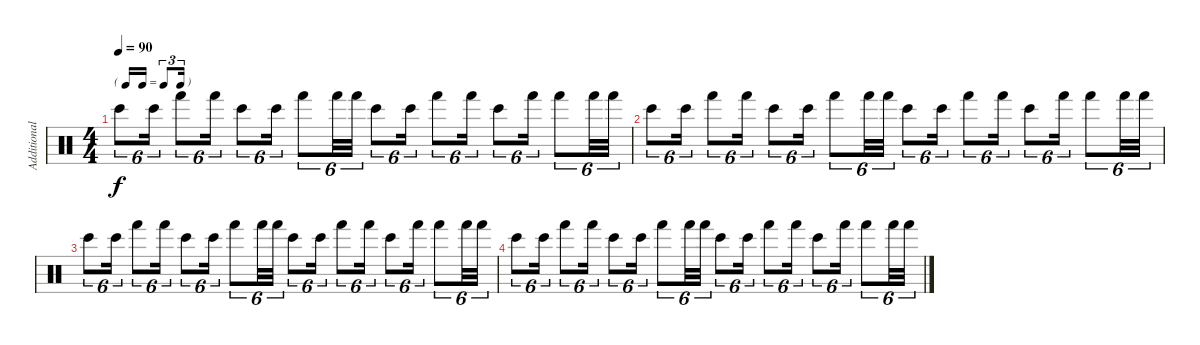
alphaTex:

\track ("Additional Percussion" "Additional") {instrument percussion}
\staff {score}
\articulation defaults
\ts (4 4)
\tf triplet16th
\tempo 90
\clef neutral
\ks c "Bongo High (hit)".8{tu (6 4) dy f} "Bongo High (hit)".16{tu (6 4)} "Hand (hit)".8{tu (6 4)} "Hand (hit)".16{tu (6 4)} "Bongo High (hit)".8{tu (6 4)} "Bongo High (hit)".16{tu (6 4)} "Hand (hit)".8{tu (6 4)} "Hand (hit)".32{tu (6 4)} "Hand (hit)".32{tu (6 4)} "Bongo High (hit)".8{tu (6 4)} "Bongo High (hit)".16{tu (6 4)} "Hand (hit)".8{tu (6 4)} "Hand (hit)".16{tu (6 4)} "Bongo High (hit)".8{tu (6 4)} "Hand (hit)".16{tu (6 4)} "Hand (hit)".8{tu (6 4)} "Hand (hit)".32{tu (6 4)} "Hand (hit)".32{tu (6 4)}
|
"Bongo High (hit)".8{tu (6 4)} "Bongo High (hit)".16{tu (6 4)} "Hand (hit)".8{tu (6 4)} "Hand (hit)".16{tu (6 4)} "Bongo High (hit)".8{tu (6 4)} "Bongo High (hit)".16{tu (6 4)} "Hand (hit)".8{tu (6 4)} "Hand (hit)".32{tu (6 4)} "Hand (hit)".32{tu (6 4)} "Bongo High (hit)".8{tu (6 4)} "Bongo High (hit)".16{tu (6 4)} "Hand (hit)".8{tu (6 4)} "Hand (hit)".16{tu (6 4)} "Bongo High (hit)".8{tu (6 4)} "Hand (hit)".16{tu (6 4)} "Hand (hit)".8{tu (6 4)} "Hand (hit)".32{tu (6 4)} "Hand (hit)".32{tu (6 4)} |
"Bongo High (hit)".8{tu (6 4)} "Bongo High (hit)".16{tu (6 4)} "Hand (hit)".8{tu (6 4)} "Hand (hit)".16{tu (6 4)} "Bongo High (hit)".8{tu (6 4)} "Bongo High (hit)".16{tu (6 4)} "Hand (hit)".8{tu (6 4)} "Hand (hit)".32{tu (6 4)} "Hand (hit)".32{tu (6 4)} "Bongo High (hit)".8{tu (6 4)} "Bongo High (hit)".16{tu (6 4)} "Hand (hit)".8{tu (6 4)} "Hand (hit)".16{tu (6 4)} "Bongo High (hit)".8{tu (6 4)} "Hand (hit)".16{tu (6 4)} "Hand (hit)".8{tu (6 4)} "Hand (hit)".32{tu (6 4)} "Hand (hit)".32{tu (6 4)} |
"Bongo High (hit)".8{tu (6 4)} "Bongo High (hit)".16{tu (6 4)} "Hand (hit)".8{tu (6 4)} "Hand (hit)".16{tu (6 4)} "Bongo High (hit)".8{tu (6 4)} "Bongo High (hit)".16{tu (6 4)} "Hand (hit)".8{tu (6 4)} "Hand (hit)".32{tu (6 4)} "Hand (hit)".32{tu (6 4)} "Bongo High (hit)".8{tu (6 4)} "Bongo High (hit)".16{tu (6 4)} "Hand (hit)".8{tu (6 4)} "Hand (hit)".16{tu (6 4)} "Bongo High (hit)".8{tu (6 4)} "Hand (hit)".16{tu (6 4)} "Hand (hit)".8{tu (6 4)} "Hand (hit)".32{tu (6 4)} "Hand (hit)".32{tu (6 4)}
